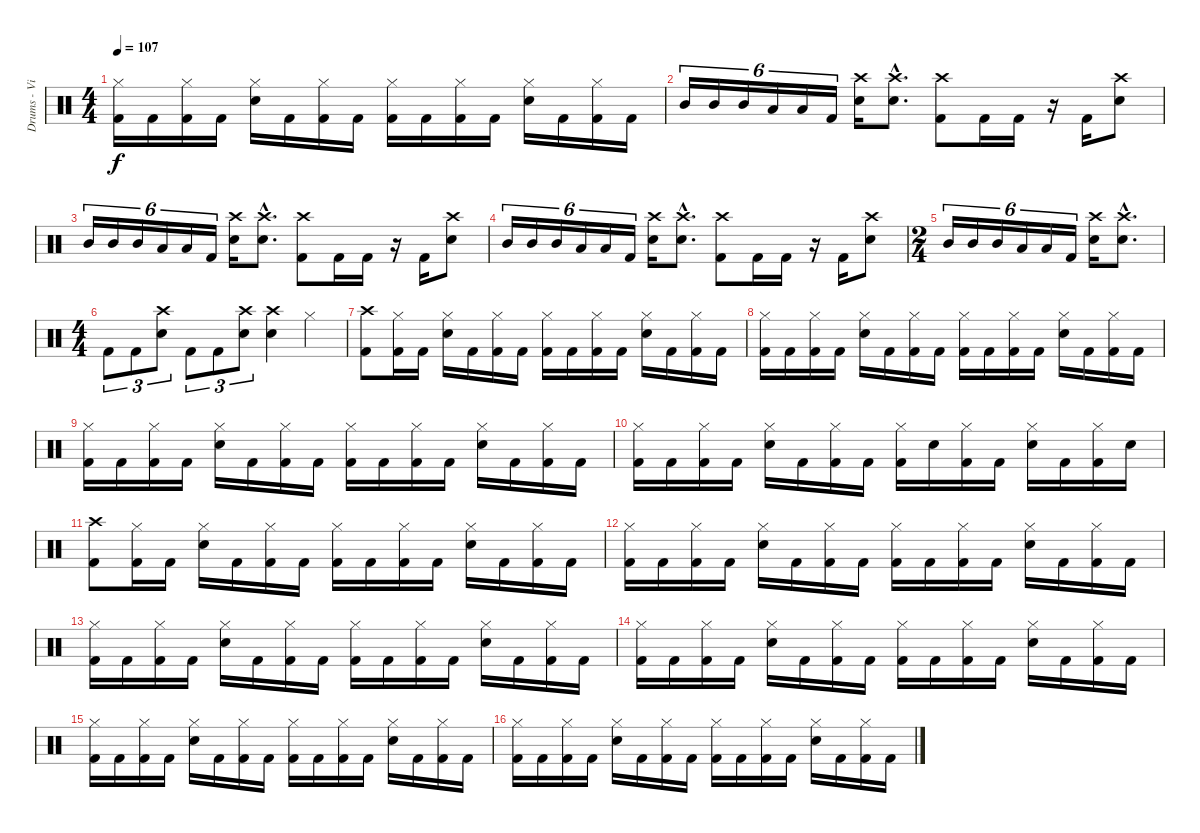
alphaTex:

\track ("Drums - Vinnie Paul" "Drums - Vi") {instrument percussion}
\staff {score}
\articulation defaults
\ts (4 4)
\tempo 107
\clef neutral
\ks c
("Hi-Hat (closed)" "Kick (hit) 2").16{dy f} "Kick (hit) 2".16 ("Hi-Hat (closed)" "Kick (hit) 2").16 "Kick (hit) 2".16 ("Hi-Hat (closed)" "Electric Snare (hit)").16 "Kick (hit) 2".16 ("Hi-Hat (closed)" "Kick (hit) 2").16 "Kick (hit) 2".16 ("Hi-Hat (closed)" "Kick (hit) 2").16 "Kick (hit) 2".16 ("Hi-Hat (closed)" "Kick (hit) 2").16 "Kick (hit) 2".16 ("Hi-Hat (closed)" "Electric Snare (hit)").16 "Kick (hit) 2".16 ("Hi-Hat (closed)" "Kick (hit) 2").16 "Kick (hit) 2".16 |
"Mid Tom (hit)".16{tu (6 4)} "Mid Tom (hit)".16{tu (6 4)} "Mid Tom (hit)".16{tu (6 4)} "Low Tom (hit)".16{tu (6 4)} "Low Tom (hit)".16{tu (6 4)} "Kick (hit) 2".16{tu (6 4)} ("Crash high (hit)" "Electric Snare (hit)").16 ("Crash high (hit)"{hac} "Electric Snare (hit)"{hac}).8{d} ("Crash high (hit)" "Kick (hit) 2").8 "Kick (hit) 2".16 "Kick (hit) 2".16 r.16 "Kick (hit) 2".16 ("Crash high (hit)" "Electric Snare (hit)").8 |
"Mid Tom (hit)".16{tu (6 4)} "Mid Tom (hit)".16{tu (6 4)} "Mid Tom (hit)".16{tu (6 4)} "Low Tom (hit)".16{tu (6 4)} "Low Tom (hit)".16{tu (6 4)} "Kick (hit) 2".16{tu (6 4)} ("Crash high (hit)" "Electric Snare (hit)").16 ("Crash high (hit)"{hac} "Electric Snare (hit)"{hac}).8{d} ("Crash high (hit)" "Kick (hit) 2").8 "Kick (hit) 2".16 "Kick (hit) 2".16 r.16 "Kick (hit) 2".16 ("Crash high (hit)" "Electric Snare (hit)").8 |
"Mid Tom (hit)".16{tu (6 4)} "Mid Tom (hit)".16{tu (6 4)} "Mid Tom (hit)".16{tu (6 4)} "Low Tom (hit)".16{tu (6 4)} "Low Tom (hit)".16{tu (6 4)} "Kick (hit) 2".16{tu (6 4)} ("Crash high (hit)" "Electric Snare (hit)").16 ("Crash high (hit)"{hac} "Electric Snare (hit)"{hac}).8{d} ("Crash high (hit)" "Kick (hit) 2").8 "Kick (hit) 2".16 "Kick (hit) 2".16 r.16 "Kick (hit) 2".16 ("Crash high (hit)" "Electric Snare (hit)").8 |
\ts (2 4)
"Mid Tom (hit)".16{tu (6 4)} "Mid Tom (hit)".16{tu (6 4)} "Mid Tom (hit)".16{tu (6 4)} "Low Tom (hit)".16{tu (6 4)} "Low Tom (hit)".16{tu (6 4)} "Kick (hit) 2".16{tu (6 4)} ("Crash high (hit)" "Electric Snare (hit)").16 ("Crash high (hit)"{hac} "Electric Snare (hit)"{hac}).8{d} |
\ts (4 4)
"Kick (hit) 2".8{tu (3 2)} "Kick (hit) 2".8{tu (3 2)} ("Crash high (hit)" "Electric Snare (hit)").8{tu (3 2)} "Kick (hit) 2".8{tu (3 2)} "Kick (hit) 2".8{tu (3 2)} ("Crash high (hit)" "Electric Snare (hit)").8{tu (3 2)} ("Crash high (hit)" "Electric Snare (hit)").4 "Hi-Hat (closed)".4 |
("Crash high (hit)" "Kick (hit) 2").8 ("Hi-Hat (closed)" "Kick (hit) 2").16 "Kick (hit) 2".16 ("Hi-Hat (closed)" "Electric Snare (hit)").16 "Kick (hit) 2".16 ("Hi-Hat (closed)" "Kick (hit) 2").16 "Kick (hit) 2".16 ("Hi-Hat (closed)" "Kick (hit) 2").16 "Kick (hit) 2".16 ("Hi-Hat (closed)" "Kick (hit) 2").16 "Kick (hit) 2".16 ("Hi-Hat (closed)" "Electric Snare (hit)").16 "Kick (hit) 2".16 ("Hi-Hat (closed)" "Kick (hit) 2").16 "Kick (hit) 2".16 |
("Hi-Hat (closed)" "Kick (hit) 2").16 "Kick (hit) 2".16 ("Hi-Hat (closed)" "Kick (hit) 2").16 "Kick (hit) 2".16 ("Hi-Hat (closed)" "Electric Snare (hit)").16 "Kick (hit) 2".16 ("Hi-Hat (closed)" "Kick (hit) 2").16 "Kick (hit) 2".16 ("Hi-Hat (closed)" "Kick (hit) 2").16 "Kick (hit) 2".16 ("Hi-Hat (closed)" "Kick (hit) 2").16 "Kick (hit) 2".16 ("Hi-Hat (closed)" "Electric Snare (hit)").16 "Kick (hit) 2".16 ("Hi-Hat (closed)" "Kick (hit) 2").16 "Kick (hit) 2".16 |
("Hi-Hat (closed)" "Kick (hit) 2").16 "Kick (hit) 2".16 ("Hi-Hat (closed)" "Kick (hit) 2").16 "Kick (hit) 2".16 ("Hi-Hat (closed)" "Electric Snare (hit)").16 "Kick (hit) 2".16 ("Hi-Hat (closed)" "Kick (hit) 2").16 "Kick (hit) 2".16 ("Hi-Hat (closed)" "Kick (hit) 2").16 "Kick (hit) 2".16 ("Hi-Hat (closed)" "Kick (hit) 2").16 "Kick (hit) 2".16 ("Hi-Hat (closed)" "Electric Snare (hit)").16 "Kick (hit) 2".16 ("Hi-Hat (closed)" "Kick (hit) 2").16 "Kick (hit) 2".16 |
("Hi-Hat (closed)" "Kick (hit) 2").16 "Kick (hit) 2".16 ("Hi-Hat (closed)" "Kick (hit) 2").16 "Kick (hit) 2".16 ("Hi-Hat (closed)" "Electric Snare (hit)").16 "Kick (hit) 2".16 ("Hi-Hat (closed)" "Kick (hit) 2").16 "Kick (hit) 2".16 ("Hi-Hat (closed)" "Kick (hit) 2").16 "Electric Snare (hit)".16 ("Hi-Hat (closed)" "Kick (hit) 2").16 "Kick (hit) 2".16 ("Hi-Hat (closed)" "Electric Snare (hit)").16 "Kick (hit) 2".16 ("Hi-Hat (closed)" "Kick (hit) 2").16 "Electric Snare (hit)".16 |
("Crash high (hit)" "Kick (hit) 2").8 ("Hi-Hat (closed)" "Kick (hit) 2").16 "Kick (hit) 2".16 ("Hi-Hat (closed)" "Electric Snare (hit)").16 "Kick (hit) 2".16 ("Hi-Hat (closed)" "Kick (hit) 2").16 "Kick (hit) 2".16 ("Hi-Hat (closed)" "Kick (hit) 2").16 "Kick (hit) 2".16 ("Hi-Hat (closed)" "Kick (hit) 2").16 "Kick (hit) 2".16 ("Hi-Hat (closed)" "Electric Snare (hit)").16 "Kick (hit) 2".16 ("Hi-Hat (closed)" "Kick (hit) 2").16 "Kick (hit) 2".16 |
("Hi-Hat (closed)" "Kick (hit) 2").16 "Kick (hit) 2".16 ("Hi-Hat (closed)" "Kick (hit) 2").16 "Kick (hit) 2".16 ("Hi-Hat (closed)" "Electric Snare (hit)").16 "Kick (hit) 2".16 ("Hi-Hat (closed)" "Kick (hit) 2").16 "Kick (hit) 2".16 ("Hi-Hat (closed)" "Kick (hit) 2").16 "Kick (hit) 2".16 ("Hi-Hat (closed)" "Kick (hit) 2").16 "Kick (hit) 2".16 ("Hi-Hat (closed)" "Electric Snare (hit)").16 "Kick (hit) 2".16 ("Hi-Hat (closed)" "Kick (hit) 2").16 "Kick (hit) 2".16 |
("Hi-Hat (closed)" "Kick (hit) 2").16 "Kick (hit) 2".16 ("Hi-Hat (closed)" "Kick (hit) 2").16 "Kick (hit) 2".16 ("Hi-Hat (closed)" "Electric Snare (hit)").16 "Kick (hit) 2".16 ("Hi-Hat (closed)" "Kick (hit) 2").16 "Kick (hit) 2".16 ("Hi-Hat (closed)" "Kick (hit) 2").16 "Kick (hit) 2".16 ("Hi-Hat (closed)" "Kick (hit) 2").16 "Kick (hit) 2".16 ("Hi-Hat (closed)" "Electric Snare (hit)").16 "Kick (hit) 2".16 ("Hi-Hat (closed)" "Kick (hit) 2").16 "Kick (hit) 2".16 |
("Hi-Hat (closed)" "Kick (hit) 2").16 "Kick (hit) 2".16 ("Hi-Hat (closed)" "Kick (hit) 2").16 "Kick (hit) 2".16 ("Hi-Hat (closed)" "Electric Snare (hit)").16 "Kick (hit) 2".16 ("Hi-Hat (closed)" "Kick (hit) 2").16 "Kick (hit) 2".16 ("Hi-Hat (closed)" "Kick (hit) 2").16 "Kick (hit) 2".16 ("Hi-Hat (closed)" "Kick (hit) 2").16 "Kick (hit) 2".16 ("Hi-Hat (closed)" "Electric Snare (hit)").16 "Kick (hit) 2".16 ("Hi-Hat (closed)" "Kick (hit) 2").16 "Kick (hit) 2".16 |
("Hi-Hat (closed)" "Kick (hit) 2").16 "Kick (hit) 2".16 ("Hi-Hat (closed)" "Kick (hit) 2").16 "Kick (hit) 2".16 ("Hi-Hat (closed)" "Electric Snare (hit)").16 "Kick (hit) 2".16 ("Hi-Hat (closed)" "Kick (hit) 2").16 "Kick (hit) 2".16 ("Hi-Hat (closed)" "Kick (hit) 2").16 "Kick (hit) 2".16 ("Hi-Hat (closed)" "Kick (hit) 2").16 "Kick (hit) 2".16 ("Hi-Hat (closed)" "Electric Snare (hit)").16 "Kick (hit) 2".16 ("Hi-Hat (closed)" "Kick (hit) 2").16 "Kick (hit) 2".16 |
("Hi-Hat (closed)" "Kick (hit) 2").16 "Kick (hit) 2".16 ("Hi-Hat (closed)" "Kick (hit) 2").16 "Kick (hit) 2".16 ("Hi-Hat (closed)" "Electric Snare (hit)").16 "Kick (hit) 2".16 ("Hi-Hat (closed)" "Kick (hit) 2").16 "Kick (hit) 2".16 ("Hi-Hat (closed)" "Kick (hit) 2").16 "Kick (hit) 2".16 ("Hi-Hat (closed)" "Kick (hit) 2").16 "Kick (hit) 2".16 ("Hi-Hat (closed)" "Electric Snare (hit)").16 "Kick (hit) 2".16 ("Hi-Hat (closed)" "Kick (hit) 2").16 "Kick (hit) 2".16
